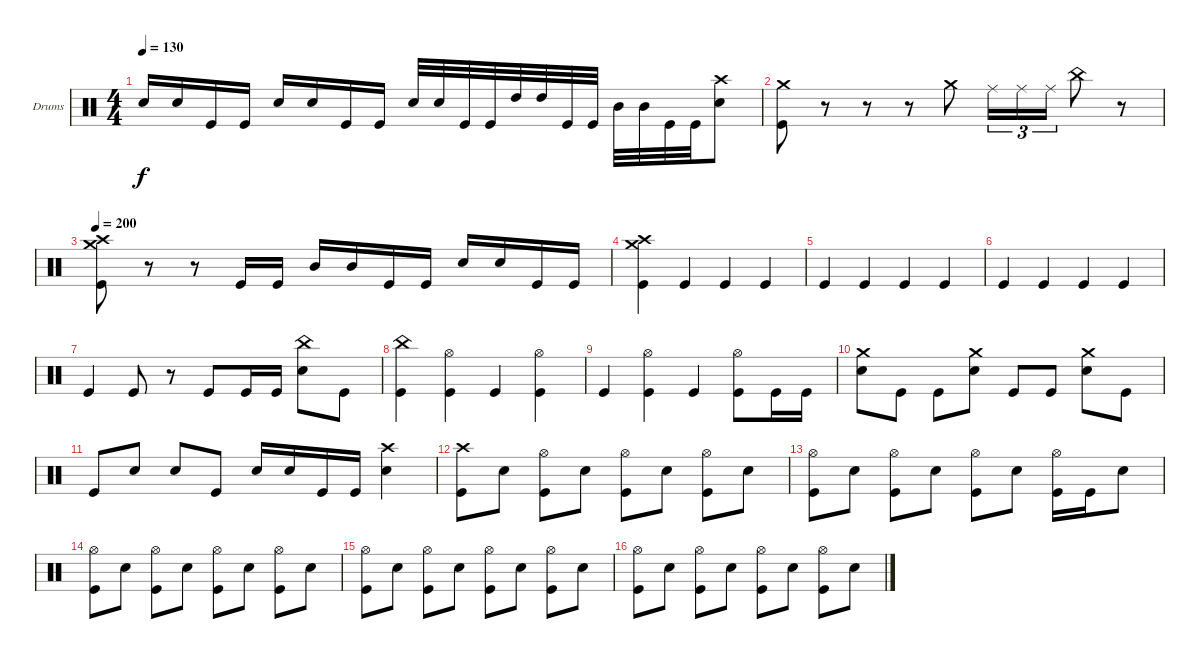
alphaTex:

\bracketExtendMode groupsimilarinstruments
\firstSystemTrackNameOrientation horizontal
\otherSystemsTrackNameOrientation horizontal
\track ("Boum Boum" "Drums") {instrument percussion}
\staff {score}
\articulation defaults
\ts (4 4)
\tempo 130
\clef neutral
\ks c "Snare (hit) 2".16{dy f} "Snare (hit) 2".16 "Kick (hit)".16 "Kick (hit)".16 "Snare (hit) 2".16 "Snare (hit) 2".16 "Kick (hit)".16 "Kick (hit)".16 "Snare (hit) 2".32 "Snare (hit) 2".32 "Kick (hit)".32 "Kick (hit)".32 "High Tom (hit)".32 "High Tom (hit)".32 "Kick (hit)".32 "Kick (hit)".32 "Mid Tom (hit)".32 "Mid Tom (hit)".32 "Kick (hit)".32 "Kick (hit)".32
("Snare (hit) 2" "Crash high (hit)").8 |
("Crash medium (hit)" "Kick (hit)").8 r.8 r.8 r.8 "Crash medium (hit)".8 "Ride (middle)".16{tu (3 2)} "Ride (middle)".16{tu (3 2)} "Ride (middle)".16{tu (3 2)} "China (hit)".8 r.8 |
\tempo 200
("Crash medium (hit)" "Crash high (hit)" "Kick (hit)").8 r.8 r.8 "Kick (hit)".16 "Kick (hit)".16 "Mid Tom (hit)".16 "Mid Tom (hit)".16 "Kick (hit)".16 "Kick (hit)".16 "Snare (hit) 2".16 "Snare (hit) 2".16 "Kick (hit)".16 "Kick (hit)".16 |
("Kick (hit)" "Crash medium (hit)" "Crash high (hit)").4 "Kick (hit)".4 "Kick (hit)".4 "Kick (hit)".4 |
"Kick (hit)".4 "Kick (hit)".4 "Kick (hit)".4 "Kick (hit)".4 |
"Kick (hit)".4 "Kick (hit)".4 "Kick (hit)".4 "Kick (hit)".4 |
"Kick (hit)".4 "Kick (hit)".8 r.8 "Kick (hit)".8 "Kick (hit)".16 "Kick (hit)".16 ("Snare (hit) 2" "China (hit)").8 "Kick (hit)".8 |
("Kick (hit)" "China (hit)").4 ("Kick (hit)" "Hi-Hat (open)").4 "Kick (hit)".4 ("Kick (hit)" "Hi-Hat (open)").4 |
"Kick (hit)".4 ("Kick (hit)" "Hi-Hat (open)").4 "Kick (hit)".4 ("Kick (hit)" "Hi-Hat (open)").8 "Kick (hit)".16 "Kick (hit)".16 |
("Snare (hit) 2" "Crash medium (hit)").8 "Kick (hit)".8 "Kick (hit)".8 ("Crash medium (hit)" "Snare (hit) 2").8 "Kick (hit)".8 "Kick (hit)".8 ("Crash medium (hit)" "Snare (hit) 2").8 "Kick (hit)".8 |
"Kick (hit)".8 "Snare (hit) 2".8 "Snare (hit) 2".8 "Kick (hit)".8 "Snare (hit) 2".16 "Snare (hit) 2".16 "Kick (hit)".16 "Kick (hit)".16 ("Snare (hit) 2" "Crash high (hit)").4 |
("Kick (hit)" "Crash high (hit)").8 "Snare (hit) 2".8 ("Kick (hit)" "Hi-Hat (open)").8 "Snare (hit) 2".8 ("Kick (hit)" "Hi-Hat (open)").8 "Snare (hit) 2".8 ("Kick (hit)" "Hi-Hat (open)").8 "Snare (hit) 2".8 |
("Kick (hit)" "Hi-Hat (open)").8 "Snare (hit) 2".8 ("Kick (hit)" "Hi-Hat (open)").8 "Snare (hit) 2".8 ("Kick (hit)" "Hi-Hat (open)").8 "Snare (hit) 2".8 ("Kick (hit)" "Hi-Hat (open)").16 "Kick (hit)".16 "Snare (hit) 2".8 |
("Kick (hit)" "Hi-Hat (open)").8 "Snare (hit) 2".8 ("Kick (hit)" "Hi-Hat (open)").8 "Snare (hit) 2".8 ("Kick (hit)" "Hi-Hat (open)").8 "Snare (hit) 2".8 ("Kick (hit)" "Hi-Hat (open)").8 "Snare (hit) 2".8 |
("Kick (hit)" "Hi-Hat (open)").8 "Snare (hit) 2".8 ("Kick (hit)" "Hi-Hat (open)").8 "Snare (hit) 2".8 ("Kick (hit)" "Hi-Hat (open)").8 "Snare (hit) 2".8 ("Kick (hit)" "Hi-Hat (open)").8 "Snare (hit) 2".8 |
("Kick (hit)" "Hi-Hat (open)").8 "Snare (hit) 2".8 ("Kick (hit)" "Hi-Hat (open)").8 "Snare (hit) 2".8 ("Kick (hit)" "Hi-Hat (open)").8 "Snare (hit) 2".8 ("Kick (hit)" "Hi-Hat (open)").8 "Snare (hit) 2".8
